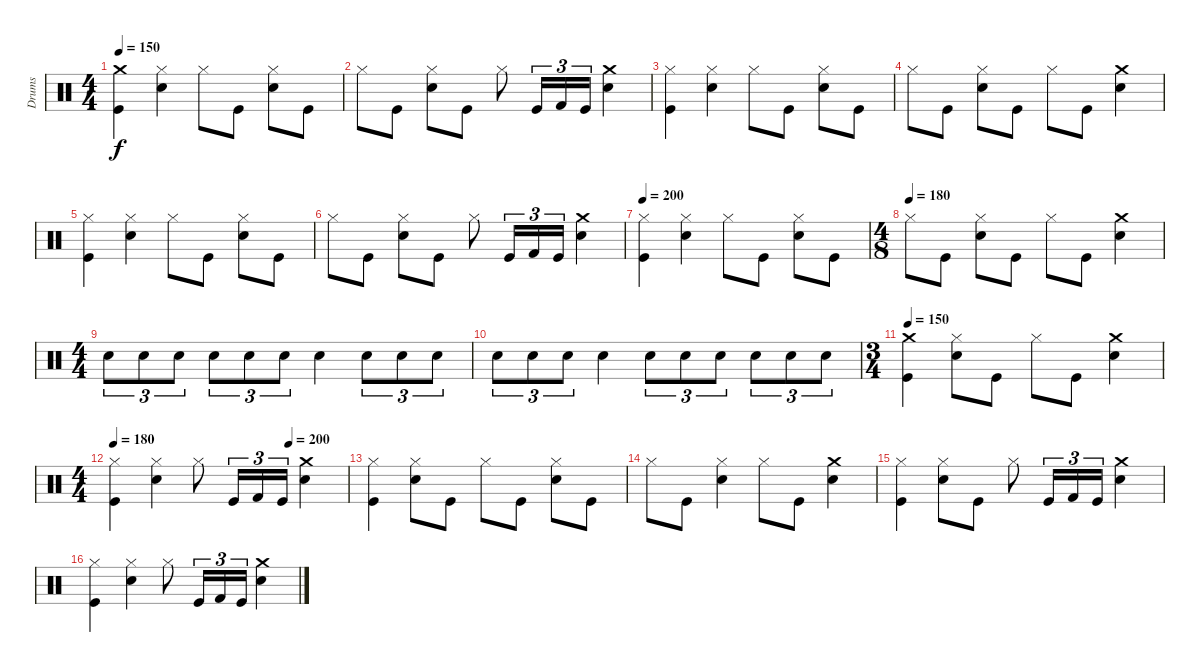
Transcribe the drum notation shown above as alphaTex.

\track ("Drums" "Drums") {instrument percussion}
\staff {score}
\articulation defaults
\ts (4 4)
\tempo 150
\clef neutral
\ks c
("Crash medium (hit)" "Kick (hit)").4{dy f} ("Hi-Hat (closed)" "Snare (hit) 2").4 "Hi-Hat (closed)".8 "Kick (hit)".8 ("Snare (hit) 2" "Hi-Hat (closed)").8 "Kick (hit)".8 |
"Hi-Hat (closed)".8 "Kick (hit)".8 ("Snare (hit) 2" "Hi-Hat (closed)").8 "Kick (hit)".8 "Hi-Hat (closed)".8 "Kick (hit)".16{tu (3 2)} "Kick (hit) 2".16{tu (3 2)} "Kick (hit)".16{tu (3 2)} ("Crash medium (hit)" "Snare (hit) 2").4 |
("Kick (hit)" "Hi-Hat (closed)").4 ("Hi-Hat (closed)" "Snare (hit) 2").4 "Hi-Hat (closed)".8 "Kick (hit)".8 ("Snare (hit) 2" "Hi-Hat (closed)").8 "Kick (hit)".8 |
"Hi-Hat (closed)".8 "Kick (hit)".8 ("Snare (hit) 2" "Hi-Hat (closed)").8 "Kick (hit)".8 "Hi-Hat (closed)".8 "Kick (hit)".8 ("Crash medium (hit)" "Snare (hit) 2").4 |
("Hi-Hat (closed)" "Kick (hit)").4 ("Snare (hit) 2" "Hi-Hat (closed)").4 "Hi-Hat (closed)".8 "Kick (hit)".8 ("Snare (hit) 2" "Hi-Hat (closed)").8 "Kick (hit)".8 |
"Hi-Hat (closed)".8 "Kick (hit)".8 ("Snare (hit) 2" "Hi-Hat (closed)").8 "Kick (hit)".8 "Hi-Hat (closed)".8 "Kick (hit)".16{tu (3 2)} "Kick (hit) 2".16{tu (3 2)} "Kick (hit)".16{tu (3 2)} ("Crash medium (hit)" "Snare (hit) 2").4 |
\tempo 200
("Kick (hit)" "Hi-Hat (closed)").4 ("Snare (hit) 2" "Hi-Hat (closed)").4 "Hi-Hat (closed)".8 "Kick (hit)".8 ("Snare (hit) 2" "Hi-Hat (closed)").8 "Kick (hit)".8 |
\ts (4 8)
\tempo (180)
"Hi-Hat (closed)".8 "Kick (hit)".8 ("Snare (hit) 2" "Hi-Hat (closed)").8 "Kick (hit)".8 "Hi-Hat (closed)".8 "Kick (hit)".8 ("Crash medium (hit)" "Snare (hit) 2").4 |
\ts (4 4)
"Snare (hit) 2".8{tu (3 2)} "Snare (hit) 2".8{tu (3 2)} "Snare (hit) 2".8{tu (3 2)} "Snare (hit) 2".8{tu (3 2)} "Snare (hit) 2".8{tu (3 2)} "Snare (hit) 2".8{tu (3 2)} "Snare (hit) 2".4 "Snare (hit) 2".8{tu (3 2)} "Snare (hit) 2".8{tu (3 2)} "Snare (hit) 2".8{tu (3 2)} |
"Snare (hit) 2".8{tu (3 2)} "Snare (hit) 2".8{tu (3 2)} "Snare (hit) 2".8{tu (3 2)} "Snare (hit) 2".4 "Snare (hit) 2".8{tu (3 2)} "Snare (hit) 2".8{tu (3 2)} "Snare (hit) 2".8{tu (3 2)} "Snare (hit) 2".8{tu (3 2)} "Snare (hit) 2".8{tu (3 2)} "Snare (hit) 2".8{tu (3 2)} |
\ts (3 4)
\tempo 150
("Kick (hit)" "Crash medium (hit)").4 ("Hi-Hat (closed)" "Snare (hit) 2").8 "Kick (hit)".8 "Hi-Hat (closed)".8 "Kick (hit)".8 ("Crash medium (hit)" "Snare (hit) 2").4 |
\ts (4 4)
\tempo 180
\tempo (200 0.75)
("Hi-Hat (closed)" "Kick (hit)").4 ("Snare (hit) 2" "Hi-Hat (closed)").4 "Hi-Hat (closed)".8 "Kick (hit)".16{tu (3 2)} "Kick (hit) 2".16{tu (3 2)} "Kick (hit)".16{tu (3 2)} ("Crash medium (hit)" "Snare (hit) 2").4 |
("Hi-Hat (closed)" "Kick (hit)").4 ("Snare (hit) 2" "Hi-Hat (closed)").8 "Kick (hit)".8 "Hi-Hat (closed)".8 "Kick (hit)".8 ("Snare (hit) 2" "Hi-Hat (closed)").8 "Kick (hit)".8 |
"Hi-Hat (closed)".8 "Kick (hit)".8 ("Snare (hit) 2" "Hi-Hat (closed)").4 "Hi-Hat (closed)".8 "Kick (hit)".8 ("Crash medium (hit)" "Snare (hit) 2").4 |
("Kick (hit)" "Hi-Hat (closed)").4 ("Snare (hit) 2" "Hi-Hat (closed)").8 "Kick (hit)".8 "Hi-Hat (closed)".8 "Kick (hit)".16{tu (3 2)} "Kick (hit) 2".16{tu (3 2)} "Kick (hit)".16{tu (3 2)} ("Crash medium (hit)" "Snare (hit) 2").4 |
("Hi-Hat (closed)" "Kick (hit)").4 ("Snare (hit) 2" "Hi-Hat (closed)").4 "Hi-Hat (closed)".8 "Kick (hit)".16{tu (3 2)} "Kick (hit) 2".16{tu (3 2)} "Kick (hit)".16{tu (3 2)} ("Crash medium (hit)" "Snare (hit) 2").4
